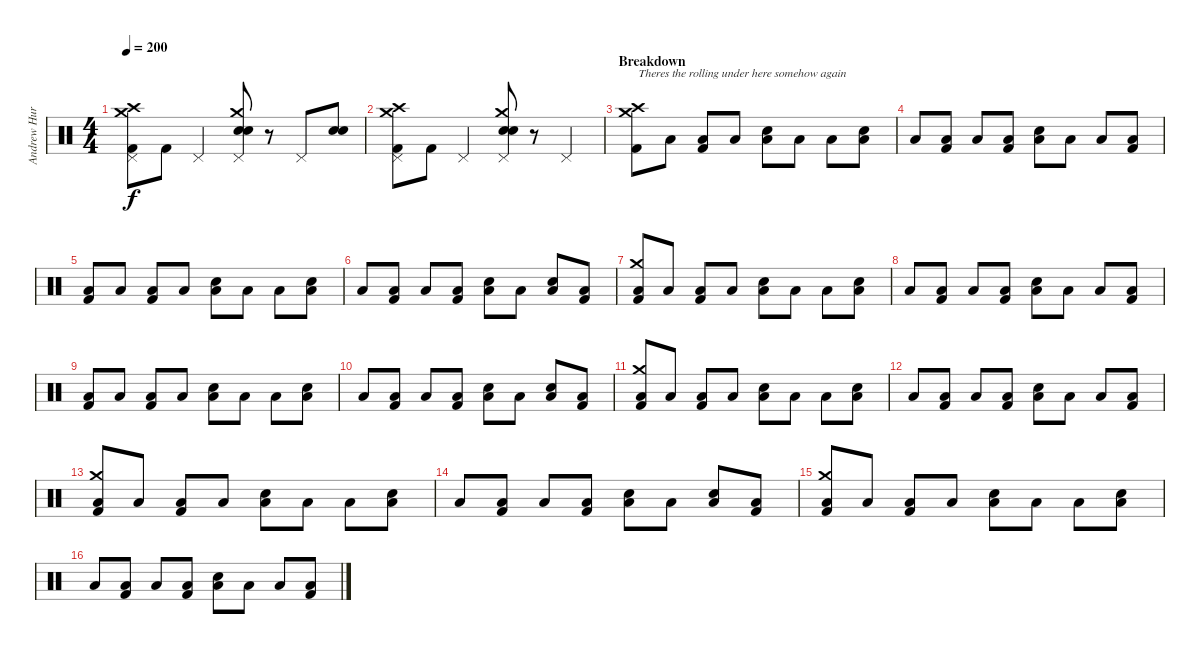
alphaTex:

\track ("Andrew Hurley (Drums)" "Andrew Hur") {instrument percussion}
\staff {score}
\articulation defaults
\ts (4 4)
\tempo 200
\clef neutral
\ks c
("Kick (hit) 2" "Pedal Hi-Hat (hit)" "Crash high (hit)" "Crash medium (hit)").8{dy f} "Kick (hit) 2".8 "Pedal Hi-Hat (hit)".4 ("Hand Clap (hit)" "Electric Snare (hit)" "Pedal Hi-Hat (hit)" "Crash medium (hit)").8 r.8 "Pedal Hi-Hat (hit)".8 ("Hand Clap (hit)" "Electric Snare (hit)").8 |
("Kick (hit) 2" "Pedal Hi-Hat (hit)" "Crash high (hit)" "Crash medium (hit)").8 "Kick (hit) 2".8 "Pedal Hi-Hat (hit)".4 ("Hand Clap (hit)" "Electric Snare (hit)" "Pedal Hi-Hat (hit)" "Crash medium (hit)").8 r.8 "Pedal Hi-Hat (hit)".4 |
\section ("" "Breakdown")
("Kick (hit) 2" "Crash medium (hit)" "Crash high (hit)").8{txt "Theres the rolling under here somehow again"} "Low Floor Tom (hit)".8 ("Kick (hit) 2" "Low Floor Tom (hit)").8 "Low Floor Tom (hit)".8 ("Electric Snare (hit)" "Low Floor Tom (hit)").8 "Low Floor Tom (hit)".8 "Low Floor Tom (hit)".8 ("Electric Snare (hit)" "Low Floor Tom (hit)").8 |
"Low Floor Tom (hit)".8 ("Kick (hit) 2" "Low Floor Tom (hit)").8 "Low Floor Tom (hit)".8 ("Kick (hit) 2" "Low Floor Tom (hit)").8 ("Electric Snare (hit)" "Low Floor Tom (hit)").8 "Low Floor Tom (hit)".8 "Low Floor Tom (hit)".8 ("Kick (hit) 2" "Low Floor Tom (hit)").8 |
("Kick (hit) 2" "Low Floor Tom (hit)").8 "Low Floor Tom (hit)".8 ("Kick (hit) 2" "Low Floor Tom (hit)").8 "Low Floor Tom (hit)".8 ("Electric Snare (hit)" "Low Floor Tom (hit)").8 "Low Floor Tom (hit)".8 "Low Floor Tom (hit)".8 ("Electric Snare (hit)" "Low Floor Tom (hit)").8 |
"Low Floor Tom (hit)".8 ("Kick (hit) 2" "Low Floor Tom (hit)").8 "Low Floor Tom (hit)".8 ("Kick (hit) 2" "Low Floor Tom (hit)").8 ("Electric Snare (hit)" "Low Floor Tom (hit)").8 "Low Floor Tom (hit)".8 ("Electric Snare (hit)" "Low Floor Tom (hit)").8 ("Kick (hit) 2" "Low Floor Tom (hit)").8 |
("Kick (hit) 2" "Low Floor Tom (hit)" "Crash medium (hit)").8 "Low Floor Tom (hit)".8 ("Kick (hit) 2" "Low Floor Tom (hit)").8 "Low Floor Tom (hit)".8 ("Electric Snare (hit)" "Low Floor Tom (hit)").8 "Low Floor Tom (hit)".8 "Low Floor Tom (hit)".8 ("Electric Snare (hit)" "Low Floor Tom (hit)").8 |
"Low Floor Tom (hit)".8 ("Kick (hit) 2" "Low Floor Tom (hit)").8 "Low Floor Tom (hit)".8 ("Kick (hit) 2" "Low Floor Tom (hit)").8 ("Electric Snare (hit)" "Low Floor Tom (hit)").8 "Low Floor Tom (hit)".8 "Low Floor Tom (hit)".8 ("Kick (hit) 2" "Low Floor Tom (hit)").8 |
("Kick (hit) 2" "Low Floor Tom (hit)").8 "Low Floor Tom (hit)".8 ("Kick (hit) 2" "Low Floor Tom (hit)").8 "Low Floor Tom (hit)".8 ("Electric Snare (hit)" "Low Floor Tom (hit)").8 "Low Floor Tom (hit)".8 "Low Floor Tom (hit)".8 ("Electric Snare (hit)" "Low Floor Tom (hit)").8 |
"Low Floor Tom (hit)".8 ("Kick (hit) 2" "Low Floor Tom (hit)").8 "Low Floor Tom (hit)".8 ("Kick (hit) 2" "Low Floor Tom (hit)").8 ("Electric Snare (hit)" "Low Floor Tom (hit)").8 "Low Floor Tom (hit)".8 ("Electric Snare (hit)" "Low Floor Tom (hit)").8 ("Kick (hit) 2" "Low Floor Tom (hit)").8 |
("Kick (hit) 2" "Low Floor Tom (hit)" "Crash medium (hit)").8 "Low Floor Tom (hit)".8 ("Kick (hit) 2" "Low Floor Tom (hit)").8 "Low Floor Tom (hit)".8 ("Electric Snare (hit)" "Low Floor Tom (hit)").8 "Low Floor Tom (hit)".8 "Low Floor Tom (hit)".8 ("Electric Snare (hit)" "Low Floor Tom (hit)").8 |
"Low Floor Tom (hit)".8 ("Kick (hit) 2" "Low Floor Tom (hit)").8 "Low Floor Tom (hit)".8 ("Kick (hit) 2" "Low Floor Tom (hit)").8 ("Electric Snare (hit)" "Low Floor Tom (hit)").8 "Low Floor Tom (hit)".8 "Low Floor Tom (hit)".8 ("Kick (hit) 2" "Low Floor Tom (hit)").8 |
("Kick (hit) 2" "Low Floor Tom (hit)" "Crash medium (hit)").8 "Low Floor Tom (hit)".8 ("Kick (hit) 2" "Low Floor Tom (hit)").8 "Low Floor Tom (hit)".8 ("Electric Snare (hit)" "Low Floor Tom (hit)").8 "Low Floor Tom (hit)".8 "Low Floor Tom (hit)".8 ("Electric Snare (hit)" "Low Floor Tom (hit)").8 |
"Low Floor Tom (hit)".8 ("Kick (hit) 2" "Low Floor Tom (hit)").8 "Low Floor Tom (hit)".8 ("Kick (hit) 2" "Low Floor Tom (hit)").8 ("Electric Snare (hit)" "Low Floor Tom (hit)").8 "Low Floor Tom (hit)".8 ("Electric Snare (hit)" "Low Floor Tom (hit)").8 ("Kick (hit) 2" "Low Floor Tom (hit)").8 |
("Kick (hit) 2" "Low Floor Tom (hit)" "Crash medium (hit)").8 "Low Floor Tom (hit)".8 ("Kick (hit) 2" "Low Floor Tom (hit)").8 "Low Floor Tom (hit)".8 ("Electric Snare (hit)" "Low Floor Tom (hit)").8 "Low Floor Tom (hit)".8 "Low Floor Tom (hit)".8 ("Electric Snare (hit)" "Low Floor Tom (hit)").8 |
"Low Floor Tom (hit)".8 ("Kick (hit) 2" "Low Floor Tom (hit)").8 "Low Floor Tom (hit)".8 ("Kick (hit) 2" "Low Floor Tom (hit)").8 ("Electric Snare (hit)" "Low Floor Tom (hit)").8 "Low Floor Tom (hit)".8 "Low Floor Tom (hit)".8 ("Kick (hit) 2" "Low Floor Tom (hit)").8{volume 12}
